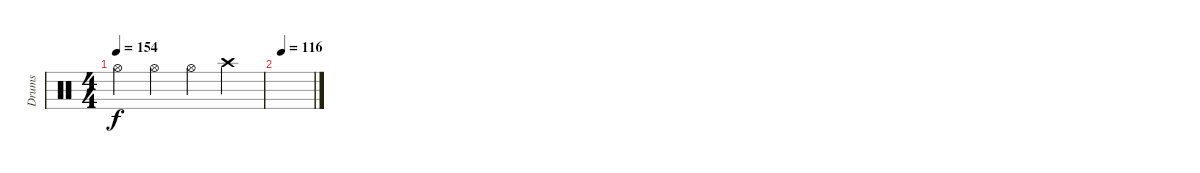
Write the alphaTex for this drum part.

\track ("Drums" "Drums") {instrument percussion}
\staff {score}
\articulation defaults
\ts (4 4)
\tempo 154
\tempo 116
\tempo 154
\clef neutral
\ks c "Hi-Hat (open)".4{dy f} "Hi-Hat (open)".4 "Hi-Hat (open)".4 "Crash high (hit)".4
|
\tempo (116 0.125)
